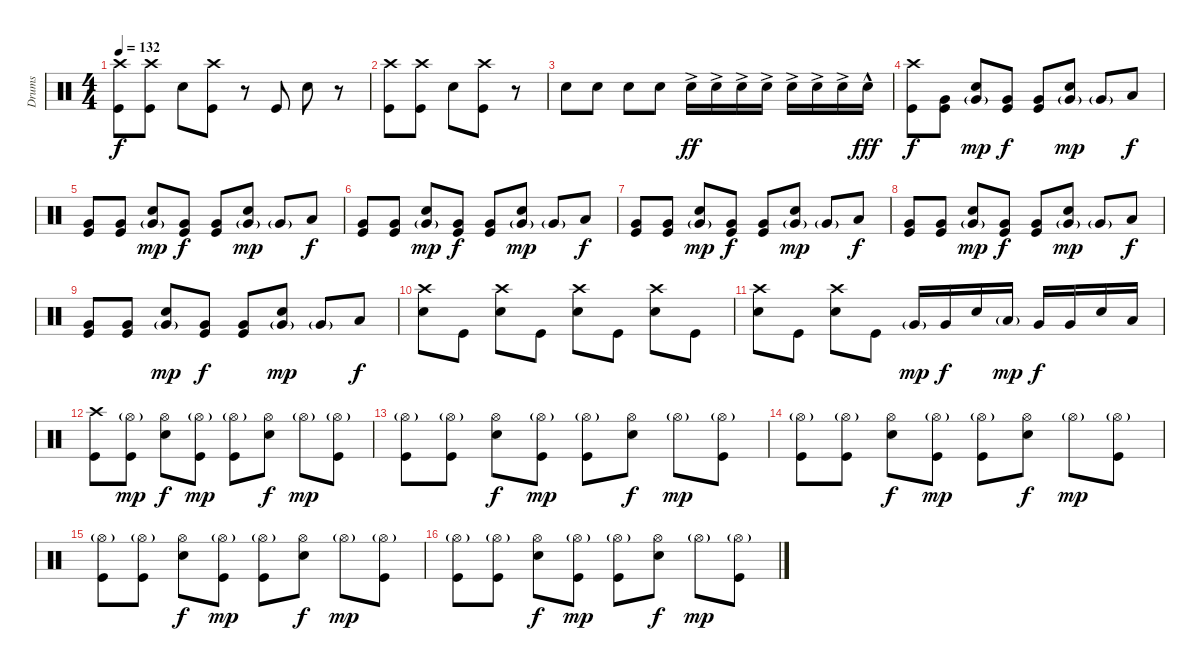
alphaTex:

\track ("Drums" "Drums") {instrument percussion}
\staff {score}
\articulation defaults
\ts (4 4)
\tempo 132
\clef neutral
\ks c
("Crash high (hit)" "Kick (hit)").8{dy f} ("Crash high (hit)" "Kick (hit)").8 "Snare (hit) 2".8 ("Crash high (hit)" "Kick (hit)").8 r.8 "Kick (hit)".8 "Snare (hit) 2".8 r.8 |
("Crash high (hit)" "Kick (hit)").8 ("Crash high (hit)" "Kick (hit)").8 "Snare (hit) 2".8 ("Crash high (hit)" "Kick (hit)").8 r.8 |
"Snare (hit) 2".8 "Snare (hit) 2".8 "Snare (hit) 2".8 "Snare (hit) 2".8 "Snare (hit) 2"{ac}.16{dy ff} "Snare (hit) 2"{ac}.16 "Snare (hit) 2"{ac}.16 "Snare (hit) 2"{ac}.16 "Snare (hit) 2"{ac}.16 "Snare (hit) 2"{ac}.16 "Snare (hit) 2"{ac}.16 "Snare (hit) 2"{hac}.16{dy fff} |
("Crash high (hit)" "Kick (hit)").8{dy f} ("Very Low Tom (hit)" "Kick (hit)").8 ("Very Low Tom (hit)"{g} "Snare (hit) 2").8{dy mp} ("Very Low Tom (hit)" "Kick (hit)").8{dy f} ("Very Low Tom (hit)" "Kick (hit)").8 ("Very Low Tom (hit)"{g} "Snare (hit) 2").8{dy mp} "Very Low Tom (hit)"{g}.8 "Low Tom (hit)".8{dy f} |
("Very Low Tom (hit)" "Kick (hit)").8 ("Very Low Tom (hit)" "Kick (hit)").8 ("Very Low Tom (hit)"{g} "Snare (hit) 2").8{dy mp} ("Very Low Tom (hit)" "Kick (hit)").8{dy f} ("Very Low Tom (hit)" "Kick (hit)").8 ("Very Low Tom (hit)"{g} "Snare (hit) 2").8{dy mp} "Very Low Tom (hit)"{g}.8 "Low Tom (hit)".8{dy f} |
("Very Low Tom (hit)" "Kick (hit)").8 ("Very Low Tom (hit)" "Kick (hit)").8 ("Very Low Tom (hit)"{g} "Snare (hit) 2").8{dy mp} ("Very Low Tom (hit)" "Kick (hit)").8{dy f} ("Very Low Tom (hit)" "Kick (hit)").8 ("Very Low Tom (hit)"{g} "Snare (hit) 2").8{dy mp} "Very Low Tom (hit)"{g}.8 "Low Tom (hit)".8{dy f} |
("Very Low Tom (hit)" "Kick (hit)").8 ("Very Low Tom (hit)" "Kick (hit)").8 ("Very Low Tom (hit)"{g} "Snare (hit) 2").8{dy mp} ("Very Low Tom (hit)" "Kick (hit)").8{dy f} ("Very Low Tom (hit)" "Kick (hit)").8 ("Very Low Tom (hit)"{g} "Snare (hit) 2").8{dy mp} "Very Low Tom (hit)"{g}.8 "Low Tom (hit)".8{dy f} |
("Very Low Tom (hit)" "Kick (hit)").8 ("Very Low Tom (hit)" "Kick (hit)").8 ("Very Low Tom (hit)"{g} "Snare (hit) 2").8{dy mp} ("Very Low Tom (hit)" "Kick (hit)").8{dy f} ("Very Low Tom (hit)" "Kick (hit)").8 ("Very Low Tom (hit)"{g} "Snare (hit) 2").8{dy mp} "Very Low Tom (hit)"{g}.8 "Low Tom (hit)".8{dy f} |
("Very Low Tom (hit)" "Kick (hit)").8 ("Very Low Tom (hit)" "Kick (hit)").8 ("Very Low Tom (hit)"{g} "Snare (hit) 2").8{dy mp} ("Very Low Tom (hit)" "Kick (hit)").8{dy f} ("Very Low Tom (hit)" "Kick (hit)").8 ("Very Low Tom (hit)"{g} "Snare (hit) 2").8{dy mp} "Very Low Tom (hit)"{g}.8 "Low Tom (hit)".8{dy f} |
("Crash high (hit)" "Snare (hit) 2").8 "Kick (hit)".8 ("Crash high (hit)" "Snare (hit) 2").8 "Kick (hit)".8 ("Crash high (hit)" "Snare (hit) 2").8 "Kick (hit)".8 ("Crash high (hit)" "Snare (hit) 2").8 "Kick (hit)".8 |
("Crash high (hit)" "Snare (hit) 2").8 "Kick (hit)".8 ("Crash high (hit)" "Snare (hit) 2").8 "Kick (hit)".8 "Very Low Tom (hit)"{g}.16{dy mp} "Very Low Tom (hit)".16{dy f} "Snare (hit) 2".16 "Low Tom (hit)"{g}.16{dy mp} "Very Low Tom (hit)".16{dy f} "Very Low Tom (hit)".16 "Snare (hit) 2".16 "Low Tom (hit)".16 |
("Crash high (hit)" "Kick (hit)").8 ("Hi-Hat (open)"{g} "Kick (hit)").8{dy mp} ("Hi-Hat (open)" "Snare (hit) 2").8{dy f} ("Hi-Hat (open)"{g} "Kick (hit)").8{dy mp} ("Hi-Hat (open)"{g} "Kick (hit)").8 ("Hi-Hat (open)" "Snare (hit) 2").8{dy f} "Hi-Hat (open)"{g}.8{dy mp} ("Hi-Hat (open)"{g} "Kick (hit)").8 |
("Hi-Hat (open)"{g} "Kick (hit)").8 ("Hi-Hat (open)"{g} "Kick (hit)").8 ("Hi-Hat (open)" "Snare (hit) 2").8{dy f} ("Hi-Hat (open)"{g} "Kick (hit)").8{dy mp} ("Hi-Hat (open)"{g} "Kick (hit)").8 ("Hi-Hat (open)" "Snare (hit) 2").8{dy f} "Hi-Hat (open)"{g}.8{dy mp} ("Hi-Hat (open)"{g} "Kick (hit)").8 |
("Hi-Hat (open)"{g} "Kick (hit)").8 ("Hi-Hat (open)"{g} "Kick (hit)").8 ("Hi-Hat (open)" "Snare (hit) 2").8{dy f} ("Hi-Hat (open)"{g} "Kick (hit)").8{dy mp} ("Hi-Hat (open)"{g} "Kick (hit)").8 ("Hi-Hat (open)" "Snare (hit) 2").8{dy f} "Hi-Hat (open)"{g}.8{dy mp} ("Hi-Hat (open)"{g} "Kick (hit)").8 |
("Hi-Hat (open)"{g} "Kick (hit)").8 ("Hi-Hat (open)"{g} "Kick (hit)").8 ("Hi-Hat (open)" "Snare (hit) 2").8{dy f} ("Hi-Hat (open)"{g} "Kick (hit)").8{dy mp} ("Hi-Hat (open)"{g} "Kick (hit)").8 ("Hi-Hat (open)" "Snare (hit) 2").8{dy f} "Hi-Hat (open)"{g}.8{dy mp} ("Hi-Hat (open)"{g} "Kick (hit)").8 |
("Hi-Hat (open)"{g} "Kick (hit)").8 ("Hi-Hat (open)"{g} "Kick (hit)").8 ("Hi-Hat (open)" "Snare (hit) 2").8{dy f} ("Hi-Hat (open)"{g} "Kick (hit)").8{dy mp} ("Hi-Hat (open)"{g} "Kick (hit)").8 ("Hi-Hat (open)" "Snare (hit) 2").8{dy f} "Hi-Hat (open)"{g}.8{dy mp} ("Hi-Hat (open)"{g} "Kick (hit)").8
